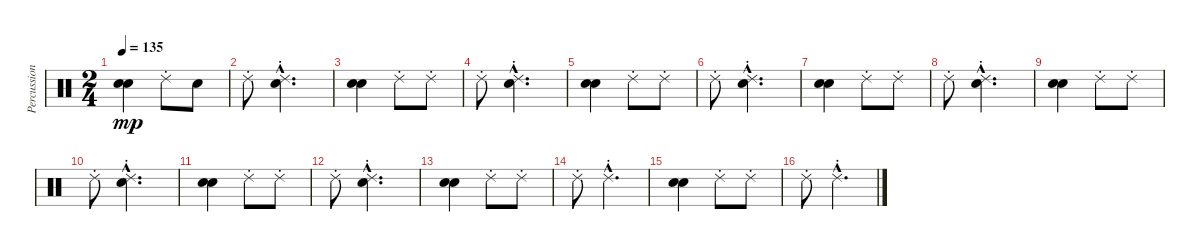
\track ("Percussions" "Percussion") {instrument percussion}
\staff {score}
\articulation defaults
\ts (2 4)
\tempo 135
\clef neutral
\ks c
("Electric Snare (hit)" "Snare (hit) 2").4{dy mp} "Ride (choke) 2".8 "Snare (hit) 2".8 |
"Ride (choke) 2".8 ("Snare (hit) 2"{hac} "Ride (choke) 2"{hac}).4{d} |
("Electric Snare (hit)" "Snare (hit) 2").4 "Ride (choke) 2".8 "Ride (choke) 2".8 |
"Ride (choke) 2".8 ("Snare (hit) 2"{hac} "Ride (choke) 2"{hac}).4{d} |
("Electric Snare (hit)" "Snare (hit) 2").4 "Ride (choke) 2".8 "Ride (choke) 2".8 |
"Ride (choke) 2".8 ("Snare (hit) 2"{hac} "Ride (choke) 2"{hac}).4{d} |
("Electric Snare (hit)" "Snare (hit) 2").4 "Ride (choke) 2".8 "Ride (choke) 2".8 |
"Ride (choke) 2".8 ("Snare (hit) 2"{hac} "Ride (choke) 2"{hac}).4{d} |
("Electric Snare (hit)" "Snare (hit) 2").4 "Ride (choke) 2".8 "Ride (choke) 2".8 |
"Ride (choke) 2".8 ("Snare (hit) 2"{hac} "Ride (choke) 2"{hac}).4{d} |
("Electric Snare (hit)" "Snare (hit) 2").4 "Ride (choke) 2".8 "Ride (choke) 2".8 |
"Ride (choke) 2".8 ("Snare (hit) 2"{hac} "Ride (choke) 2"{hac}).4{d} |
("Electric Snare (hit)" "Snare (hit) 2").4 "Ride (choke) 2".8 "Ride (choke) 2".8 |
"Ride (choke) 2".8 "Ride (choke) 2"{hac}.4{d} |
("Snare (hit) 2" "Electric Snare (hit)").4 "Ride (choke) 2".8 "Ride (choke) 2".8 |
"Ride (choke) 2".8 "Ride (choke) 2"{hac}.4{d}
